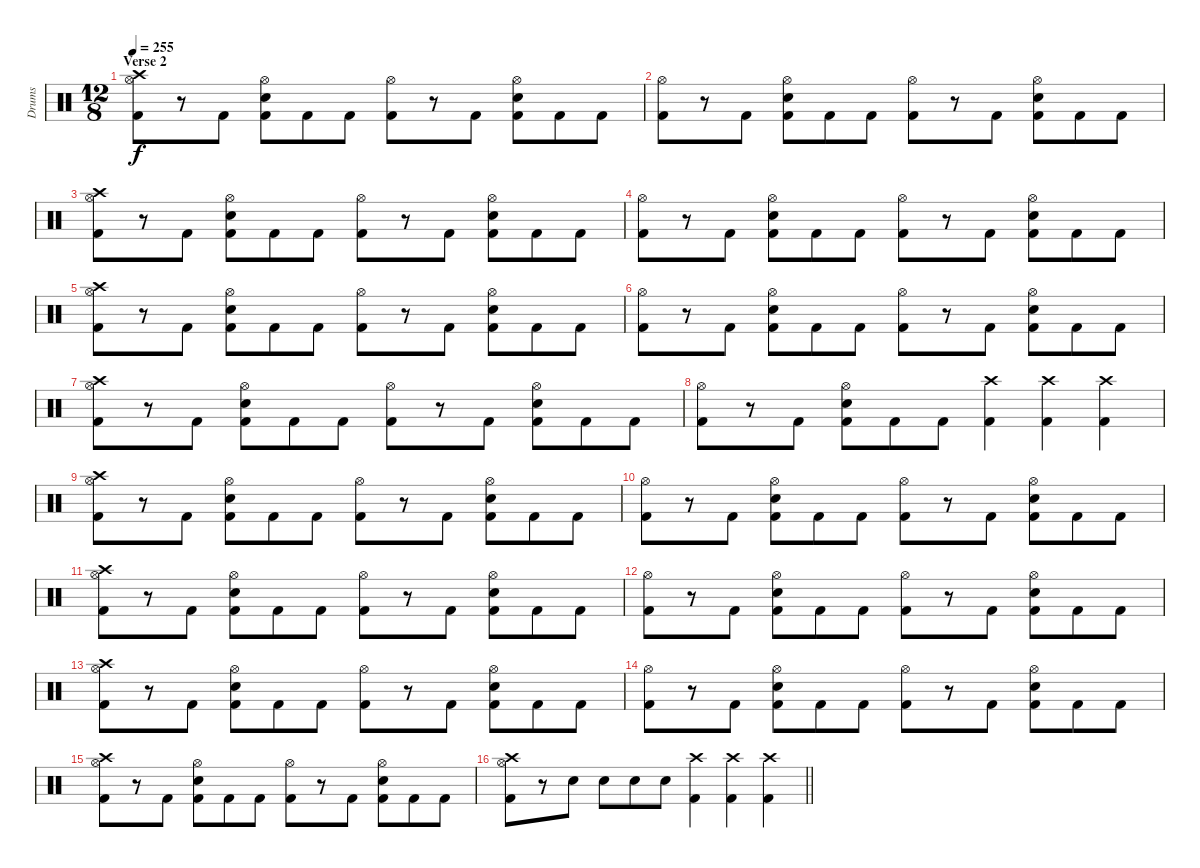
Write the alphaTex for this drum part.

\track ("Drums" "Drums") {instrument percussion}
\staff {score}
\articulation defaults
\ts (12 8)
\section ("" "Verse 2")
\tempo 255
\clef neutral
\ks c
("Crash high (hit)" "Hi-Hat (open)" "Kick (hit) 2").8{dy f} r.8 "Kick (hit) 2".8 ("Hi-Hat (open)" "Snare (hit) 2" "Kick (hit) 2").8 "Kick (hit) 2".8 "Kick (hit) 2".8 ("Hi-Hat (open)" "Kick (hit) 2").8 r.8 "Kick (hit) 2".8 ("Hi-Hat (open)" "Snare (hit) 2" "Kick (hit) 2").8 "Kick (hit) 2".8 "Kick (hit) 2".8 |
("Hi-Hat (open)" "Kick (hit) 2").8 r.8 "Kick (hit) 2".8 ("Hi-Hat (open)" "Snare (hit) 2" "Kick (hit) 2").8 "Kick (hit) 2".8 "Kick (hit) 2".8 ("Hi-Hat (open)" "Kick (hit) 2").8 r.8 "Kick (hit) 2".8 ("Hi-Hat (open)" "Snare (hit) 2" "Kick (hit) 2").8 "Kick (hit) 2".8 "Kick (hit) 2".8 |
("Crash high (hit)" "Hi-Hat (open)" "Kick (hit) 2").8 r.8 "Kick (hit) 2".8 ("Hi-Hat (open)" "Snare (hit) 2" "Kick (hit) 2").8 "Kick (hit) 2".8 "Kick (hit) 2".8 ("Hi-Hat (open)" "Kick (hit) 2").8 r.8 "Kick (hit) 2".8 ("Hi-Hat (open)" "Snare (hit) 2" "Kick (hit) 2").8 "Kick (hit) 2".8 "Kick (hit) 2".8 |
("Hi-Hat (open)" "Kick (hit) 2").8 r.8 "Kick (hit) 2".8 ("Hi-Hat (open)" "Snare (hit) 2" "Kick (hit) 2").8 "Kick (hit) 2".8 "Kick (hit) 2".8 ("Hi-Hat (open)" "Kick (hit) 2").8 r.8 "Kick (hit) 2".8 ("Hi-Hat (open)" "Snare (hit) 2" "Kick (hit) 2").8 "Kick (hit) 2".8 "Kick (hit) 2".8 |
("Crash high (hit)" "Hi-Hat (open)" "Kick (hit) 2").8 r.8 "Kick (hit) 2".8 ("Hi-Hat (open)" "Snare (hit) 2" "Kick (hit) 2").8 "Kick (hit) 2".8 "Kick (hit) 2".8 ("Hi-Hat (open)" "Kick (hit) 2").8 r.8 "Kick (hit) 2".8 ("Hi-Hat (open)" "Snare (hit) 2" "Kick (hit) 2").8 "Kick (hit) 2".8 "Kick (hit) 2".8 |
("Hi-Hat (open)" "Kick (hit) 2").8 r.8 "Kick (hit) 2".8 ("Hi-Hat (open)" "Snare (hit) 2" "Kick (hit) 2").8 "Kick (hit) 2".8 "Kick (hit) 2".8 ("Hi-Hat (open)" "Kick (hit) 2").8 r.8 "Kick (hit) 2".8 ("Hi-Hat (open)" "Snare (hit) 2" "Kick (hit) 2").8 "Kick (hit) 2".8 "Kick (hit) 2".8 |
("Crash high (hit)" "Hi-Hat (open)" "Kick (hit) 2").8 r.8 "Kick (hit) 2".8 ("Hi-Hat (open)" "Snare (hit) 2" "Kick (hit) 2").8 "Kick (hit) 2".8 "Kick (hit) 2".8 ("Hi-Hat (open)" "Kick (hit) 2").8 r.8 "Kick (hit) 2".8 ("Hi-Hat (open)" "Snare (hit) 2" "Kick (hit) 2").8 "Kick (hit) 2".8 "Kick (hit) 2".8 |
("Hi-Hat (open)" "Kick (hit) 2").8 r.8 "Kick (hit) 2".8 ("Hi-Hat (open)" "Snare (hit) 2" "Kick (hit) 2").8 "Kick (hit) 2".8 "Kick (hit) 2".8 ("Crash high (hit)" "Kick (hit) 2").4 ("Crash high (hit)" "Kick (hit) 2").4 ("Crash high (hit)" "Kick (hit) 2").4 |
("Crash high (hit)" "Hi-Hat (open)" "Kick (hit) 2").8 r.8 "Kick (hit) 2".8 ("Hi-Hat (open)" "Snare (hit) 2" "Kick (hit) 2").8 "Kick (hit) 2".8 "Kick (hit) 2".8 ("Hi-Hat (open)" "Kick (hit) 2").8 r.8 "Kick (hit) 2".8 ("Hi-Hat (open)" "Snare (hit) 2" "Kick (hit) 2").8 "Kick (hit) 2".8 "Kick (hit) 2".8 |
("Hi-Hat (open)" "Kick (hit) 2").8 r.8 "Kick (hit) 2".8 ("Hi-Hat (open)" "Snare (hit) 2" "Kick (hit) 2").8 "Kick (hit) 2".8 "Kick (hit) 2".8 ("Hi-Hat (open)" "Kick (hit) 2").8 r.8 "Kick (hit) 2".8 ("Hi-Hat (open)" "Snare (hit) 2" "Kick (hit) 2").8 "Kick (hit) 2".8 "Kick (hit) 2".8 |
("Crash high (hit)" "Hi-Hat (open)" "Kick (hit) 2").8 r.8 "Kick (hit) 2".8 ("Hi-Hat (open)" "Snare (hit) 2" "Kick (hit) 2").8 "Kick (hit) 2".8 "Kick (hit) 2".8 ("Hi-Hat (open)" "Kick (hit) 2").8 r.8 "Kick (hit) 2".8 ("Hi-Hat (open)" "Snare (hit) 2" "Kick (hit) 2").8 "Kick (hit) 2".8 "Kick (hit) 2".8 |
("Hi-Hat (open)" "Kick (hit) 2").8 r.8 "Kick (hit) 2".8 ("Hi-Hat (open)" "Snare (hit) 2" "Kick (hit) 2").8 "Kick (hit) 2".8 "Kick (hit) 2".8 ("Hi-Hat (open)" "Kick (hit) 2").8 r.8 "Kick (hit) 2".8 ("Hi-Hat (open)" "Snare (hit) 2" "Kick (hit) 2").8 "Kick (hit) 2".8 "Kick (hit) 2".8 |
("Crash high (hit)" "Hi-Hat (open)" "Kick (hit) 2").8 r.8 "Kick (hit) 2".8 ("Hi-Hat (open)" "Snare (hit) 2" "Kick (hit) 2").8 "Kick (hit) 2".8 "Kick (hit) 2".8 ("Hi-Hat (open)" "Kick (hit) 2").8 r.8 "Kick (hit) 2".8 ("Hi-Hat (open)" "Snare (hit) 2" "Kick (hit) 2").8 "Kick (hit) 2".8 "Kick (hit) 2".8 |
("Hi-Hat (open)" "Kick (hit) 2").8 r.8 "Kick (hit) 2".8 ("Hi-Hat (open)" "Snare (hit) 2" "Kick (hit) 2").8 "Kick (hit) 2".8 "Kick (hit) 2".8 ("Hi-Hat (open)" "Kick (hit) 2").8 r.8 "Kick (hit) 2".8 ("Hi-Hat (open)" "Snare (hit) 2" "Kick (hit) 2").8 "Kick (hit) 2".8 "Kick (hit) 2".8 |
("Crash high (hit)" "Hi-Hat (open)" "Kick (hit) 2").8 r.8 "Kick (hit) 2".8 ("Hi-Hat (open)" "Snare (hit) 2" "Kick (hit) 2").8 "Kick (hit) 2".8 "Kick (hit) 2".8 ("Hi-Hat (open)" "Kick (hit) 2").8 r.8 "Kick (hit) 2".8 ("Hi-Hat (open)" "Snare (hit) 2" "Kick (hit) 2").8 "Kick (hit) 2".8 "Kick (hit) 2".8 |
\barLineRight lightlight
("Crash high (hit)" "Hi-Hat (open)" "Kick (hit) 2").8 r.8 "Snare (hit) 2".8 "Snare (hit) 2".8 "Snare (hit) 2".8 "Snare (hit) 2".8 ("Crash high (hit)" "Kick (hit) 2").4 ("Crash high (hit)" "Kick (hit) 2").4 ("Crash high (hit)" "Kick (hit) 2").4
